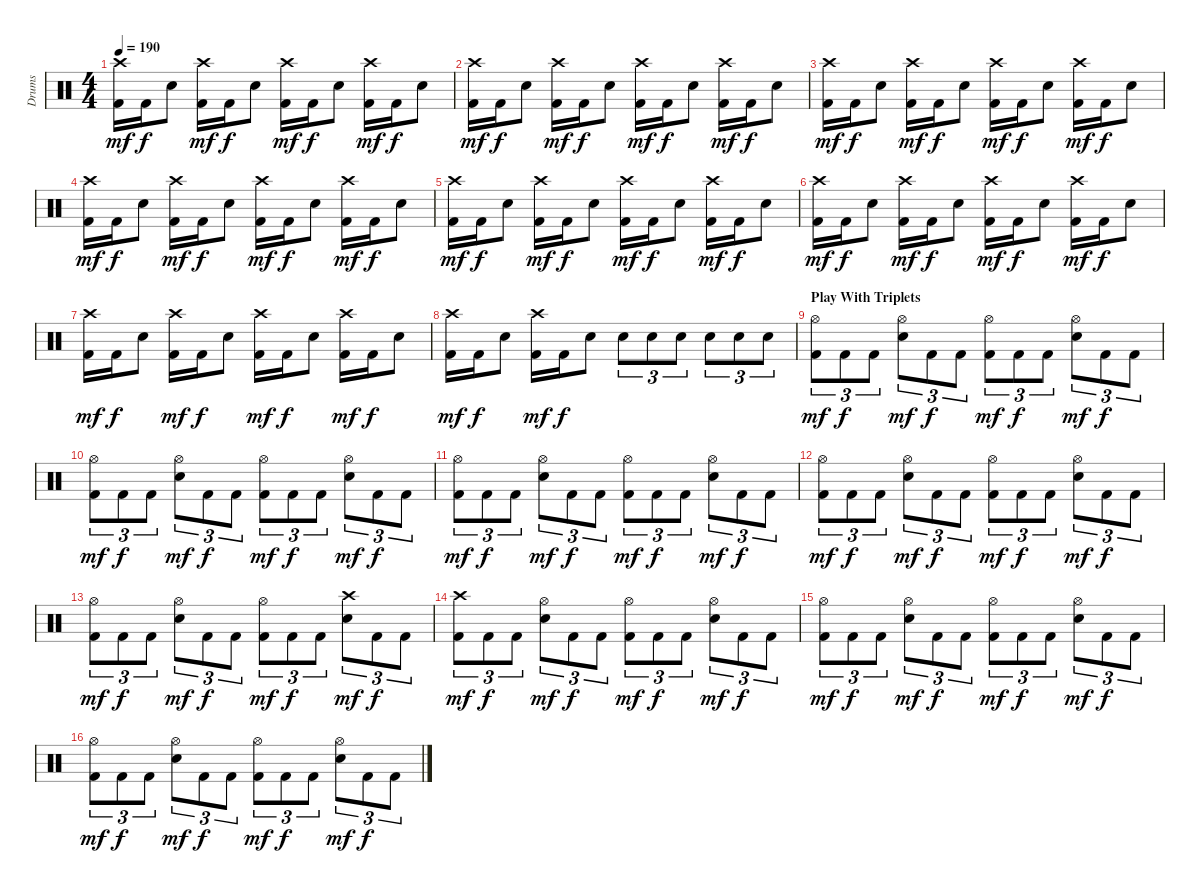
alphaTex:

\track ("Drums" "Drums") {instrument percussion}
\staff {score}
\articulation defaults
\ts (4 4)
\tempo 190
\clef neutral
\ks c
("Crash high (hit)" "Kick (hit) 2").16{dy mf} "Kick (hit) 2".16{dy f} "Snare (hit) 2".8 ("Crash high (hit)" "Kick (hit) 2").16{dy mf} "Kick (hit) 2".16{dy f} "Snare (hit) 2".8 ("Crash high (hit)" "Kick (hit) 2").16{dy mf} "Kick (hit) 2".16{dy f} "Snare (hit) 2".8 ("Crash high (hit)" "Kick (hit) 2").16{dy mf} "Kick (hit) 2".16{dy f} "Snare (hit) 2".8 |
("Crash high (hit)" "Kick (hit) 2").16{dy mf} "Kick (hit) 2".16{dy f} "Snare (hit) 2".8 ("Crash high (hit)" "Kick (hit) 2").16{dy mf} "Kick (hit) 2".16{dy f} "Snare (hit) 2".8 ("Crash high (hit)" "Kick (hit) 2").16{dy mf} "Kick (hit) 2".16{dy f} "Snare (hit) 2".8 ("Crash high (hit)" "Kick (hit) 2").16{dy mf} "Kick (hit) 2".16{dy f} "Snare (hit) 2".8 |
("Crash high (hit)" "Kick (hit) 2").16{dy mf} "Kick (hit) 2".16{dy f} "Snare (hit) 2".8 ("Crash high (hit)" "Kick (hit) 2").16{dy mf} "Kick (hit) 2".16{dy f} "Snare (hit) 2".8 ("Crash high (hit)" "Kick (hit) 2").16{dy mf} "Kick (hit) 2".16{dy f} "Snare (hit) 2".8 ("Crash high (hit)" "Kick (hit) 2").16{dy mf} "Kick (hit) 2".16{dy f} "Snare (hit) 2".8 |
("Crash high (hit)" "Kick (hit) 2").16{dy mf} "Kick (hit) 2".16{dy f} "Snare (hit) 2".8 ("Crash high (hit)" "Kick (hit) 2").16{dy mf} "Kick (hit) 2".16{dy f} "Snare (hit) 2".8 ("Crash high (hit)" "Kick (hit) 2").16{dy mf} "Kick (hit) 2".16{dy f} "Snare (hit) 2".8 ("Crash high (hit)" "Kick (hit) 2").16{dy mf} "Kick (hit) 2".16{dy f} "Snare (hit) 2".8 |
("Crash high (hit)" "Kick (hit) 2").16{dy mf} "Kick (hit) 2".16{dy f} "Snare (hit) 2".8 ("Crash high (hit)" "Kick (hit) 2").16{dy mf} "Kick (hit) 2".16{dy f} "Snare (hit) 2".8 ("Crash high (hit)" "Kick (hit) 2").16{dy mf} "Kick (hit) 2".16{dy f} "Snare (hit) 2".8 ("Crash high (hit)" "Kick (hit) 2").16{dy mf} "Kick (hit) 2".16{dy f} "Snare (hit) 2".8 |
("Crash high (hit)" "Kick (hit) 2").16{dy mf} "Kick (hit) 2".16{dy f} "Snare (hit) 2".8 ("Crash high (hit)" "Kick (hit) 2").16{dy mf} "Kick (hit) 2".16{dy f} "Snare (hit) 2".8 ("Crash high (hit)" "Kick (hit) 2").16{dy mf} "Kick (hit) 2".16{dy f} "Snare (hit) 2".8 ("Crash high (hit)" "Kick (hit) 2").16{dy mf} "Kick (hit) 2".16{dy f} "Snare (hit) 2".8 |
("Crash high (hit)" "Kick (hit) 2").16{dy mf} "Kick (hit) 2".16{dy f} "Snare (hit) 2".8 ("Crash high (hit)" "Kick (hit) 2").16{dy mf} "Kick (hit) 2".16{dy f} "Snare (hit) 2".8 ("Crash high (hit)" "Kick (hit) 2").16{dy mf} "Kick (hit) 2".16{dy f} "Snare (hit) 2".8 ("Crash high (hit)" "Kick (hit) 2").16{dy mf} "Kick (hit) 2".16{dy f} "Snare (hit) 2".8 |
("Crash high (hit)" "Kick (hit) 2").16{dy mf} "Kick (hit) 2".16{dy f} "Snare (hit) 2".8 ("Crash high (hit)" "Kick (hit) 2").16{dy mf} "Kick (hit) 2".16{dy f} "Snare (hit) 2".8 "Snare (hit) 2".8{tu (3 2)} "Snare (hit) 2".8{tu (3 2)} "Snare (hit) 2".8{tu (3 2)} "Snare (hit) 2".8{tu (3 2)} "Snare (hit) 2".8{tu (3 2)} "Snare (hit) 2".8{tu (3 2)} |
\section ("" "Play With Triplets")
("Hi-Hat (open)" "Kick (hit) 2").8{tu (3 2) dy mf} "Kick (hit) 2".8{tu (3 2) dy f} "Kick (hit) 2".8{tu (3 2)} ("Hi-Hat (open)" "Snare (hit) 2").8{tu (3 2) dy mf} "Kick (hit) 2".8{tu (3 2) dy f} "Kick (hit) 2".8{tu (3 2)} ("Hi-Hat (open)" "Kick (hit) 2").8{tu (3 2) dy mf} "Kick (hit) 2".8{tu (3 2) dy f} "Kick (hit) 2".8{tu (3 2)} ("Hi-Hat (open)" "Snare (hit) 2").8{tu (3 2) dy mf} "Kick (hit) 2".8{tu (3 2) dy f} "Kick (hit) 2".8{tu (3 2)} |
("Hi-Hat (open)" "Kick (hit) 2").8{tu (3 2) dy mf} "Kick (hit) 2".8{tu (3 2) dy f} "Kick (hit) 2".8{tu (3 2)} ("Hi-Hat (open)" "Snare (hit) 2").8{tu (3 2) dy mf} "Kick (hit) 2".8{tu (3 2) dy f} "Kick (hit) 2".8{tu (3 2)} ("Hi-Hat (open)" "Kick (hit) 2").8{tu (3 2) dy mf} "Kick (hit) 2".8{tu (3 2) dy f} "Kick (hit) 2".8{tu (3 2)} ("Hi-Hat (open)" "Snare (hit) 2").8{tu (3 2) dy mf} "Kick (hit) 2".8{tu (3 2) dy f} "Kick (hit) 2".8{tu (3 2)} |
("Hi-Hat (open)" "Kick (hit) 2").8{tu (3 2) dy mf} "Kick (hit) 2".8{tu (3 2) dy f} "Kick (hit) 2".8{tu (3 2)} ("Hi-Hat (open)" "Snare (hit) 2").8{tu (3 2) dy mf} "Kick (hit) 2".8{tu (3 2) dy f} "Kick (hit) 2".8{tu (3 2)} ("Hi-Hat (open)" "Kick (hit) 2").8{tu (3 2) dy mf} "Kick (hit) 2".8{tu (3 2) dy f} "Kick (hit) 2".8{tu (3 2)} ("Hi-Hat (open)" "Snare (hit) 2").8{tu (3 2) dy mf} "Kick (hit) 2".8{tu (3 2) dy f} "Kick (hit) 2".8{tu (3 2)} |
("Hi-Hat (open)" "Kick (hit) 2").8{tu (3 2) dy mf} "Kick (hit) 2".8{tu (3 2) dy f} "Kick (hit) 2".8{tu (3 2)} ("Hi-Hat (open)" "Snare (hit) 2").8{tu (3 2) dy mf} "Kick (hit) 2".8{tu (3 2) dy f} "Kick (hit) 2".8{tu (3 2)} ("Hi-Hat (open)" "Kick (hit) 2").8{tu (3 2) dy mf} "Kick (hit) 2".8{tu (3 2) dy f} "Kick (hit) 2".8{tu (3 2)} ("Hi-Hat (open)" "Snare (hit) 2").8{tu (3 2) dy mf} "Kick (hit) 2".8{tu (3 2) dy f} "Kick (hit) 2".8{tu (3 2)} |
("Hi-Hat (open)" "Kick (hit) 2").8{tu (3 2) dy mf} "Kick (hit) 2".8{tu (3 2) dy f} "Kick (hit) 2".8{tu (3 2)} ("Hi-Hat (open)" "Snare (hit) 2").8{tu (3 2) dy mf} "Kick (hit) 2".8{tu (3 2) dy f} "Kick (hit) 2".8{tu (3 2)} ("Hi-Hat (open)" "Kick (hit) 2").8{tu (3 2) dy mf} "Kick (hit) 2".8{tu (3 2) dy f} "Kick (hit) 2".8{tu (3 2)} ("Crash high (hit)" "Snare (hit) 2").8{tu (3 2) dy mf} "Kick (hit) 2".8{tu (3 2) dy f} "Kick (hit) 2".8{tu (3 2)} |
("Crash high (hit)" "Kick (hit) 2").8{tu (3 2) dy mf} "Kick (hit) 2".8{tu (3 2) dy f} "Kick (hit) 2".8{tu (3 2)} ("Hi-Hat (open)" "Snare (hit) 2").8{tu (3 2) dy mf} "Kick (hit) 2".8{tu (3 2) dy f} "Kick (hit) 2".8{tu (3 2)} ("Hi-Hat (open)" "Kick (hit) 2").8{tu (3 2) dy mf} "Kick (hit) 2".8{tu (3 2) dy f} "Kick (hit) 2".8{tu (3 2)} ("Hi-Hat (open)" "Snare (hit) 2").8{tu (3 2) dy mf} "Kick (hit) 2".8{tu (3 2) dy f} "Kick (hit) 2".8{tu (3 2)} |
("Hi-Hat (open)" "Kick (hit) 2").8{tu (3 2) dy mf} "Kick (hit) 2".8{tu (3 2) dy f} "Kick (hit) 2".8{tu (3 2)} ("Hi-Hat (open)" "Snare (hit) 2").8{tu (3 2) dy mf} "Kick (hit) 2".8{tu (3 2) dy f} "Kick (hit) 2".8{tu (3 2)} ("Hi-Hat (open)" "Kick (hit) 2").8{tu (3 2) dy mf} "Kick (hit) 2".8{tu (3 2) dy f} "Kick (hit) 2".8{tu (3 2)} ("Hi-Hat (open)" "Snare (hit) 2").8{tu (3 2) dy mf} "Kick (hit) 2".8{tu (3 2) dy f} "Kick (hit) 2".8{tu (3 2)} |
("Hi-Hat (open)" "Kick (hit) 2").8{tu (3 2) dy mf} "Kick (hit) 2".8{tu (3 2) dy f} "Kick (hit) 2".8{tu (3 2)} ("Hi-Hat (open)" "Snare (hit) 2").8{tu (3 2) dy mf} "Kick (hit) 2".8{tu (3 2) dy f} "Kick (hit) 2".8{tu (3 2)} ("Hi-Hat (open)" "Kick (hit) 2").8{tu (3 2) dy mf} "Kick (hit) 2".8{tu (3 2) dy f} "Kick (hit) 2".8{tu (3 2)} ("Hi-Hat (open)" "Snare (hit) 2").8{tu (3 2) dy mf} "Kick (hit) 2".8{tu (3 2) dy f} "Kick (hit) 2".8{tu (3 2)}
